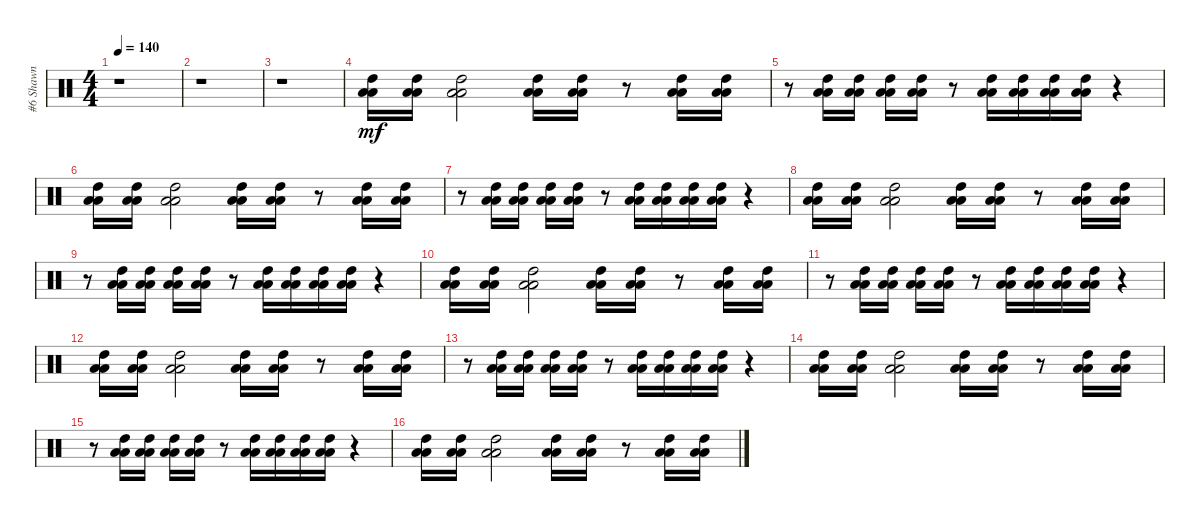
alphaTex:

\track ("#6 Shawn" "#6 Shawn") {solo instrument percussion}
\staff {score}
\articulation defaults
\ts (4 4)
\tempo 140
\clef neutral
\ks c
r.1{dy mf} |
r.1 |
r.1 |
("High Tom (hit)" "Low Tom (hit)" "Low Floor Tom (hit)").16 ("High Tom (hit)" "Low Tom (hit)" "Low Floor Tom (hit)").16 ("High Tom (hit)" "Low Tom (hit)" "Low Floor Tom (hit)").2 ("High Tom (hit)" "Low Tom (hit)" "Low Floor Tom (hit)").16 ("High Tom (hit)" "Low Tom (hit)" "Low Floor Tom (hit)").16 r.8 ("High Tom (hit)" "Low Tom (hit)" "Low Floor Tom (hit)").16 ("High Tom (hit)" "Low Tom (hit)" "Low Floor Tom (hit)").16 |
r.8 ("High Tom (hit)" "Low Tom (hit)" "Low Floor Tom (hit)").16 ("High Tom (hit)" "Low Tom (hit)" "Low Floor Tom (hit)").16 ("High Tom (hit)" "Low Tom (hit)" "Low Floor Tom (hit)").16 ("High Tom (hit)" "Low Tom (hit)" "Low Floor Tom (hit)").16 r.8 ("High Tom (hit)" "Low Tom (hit)" "Low Floor Tom (hit)").16 ("High Tom (hit)" "Low Tom (hit)" "Low Floor Tom (hit)").16 ("High Tom (hit)" "Low Tom (hit)" "Low Floor Tom (hit)").16 ("High Tom (hit)" "Low Tom (hit)" "Low Floor Tom (hit)").16 r.4 |
("High Tom (hit)" "Low Tom (hit)" "Low Floor Tom (hit)").16 ("High Tom (hit)" "Low Tom (hit)" "Low Floor Tom (hit)").16 ("High Tom (hit)" "Low Tom (hit)" "Low Floor Tom (hit)").2 ("High Tom (hit)" "Low Tom (hit)" "Low Floor Tom (hit)").16 ("High Tom (hit)" "Low Tom (hit)" "Low Floor Tom (hit)").16 r.8 ("High Tom (hit)" "Low Tom (hit)" "Low Floor Tom (hit)").16 ("High Tom (hit)" "Low Tom (hit)" "Low Floor Tom (hit)").16 |
r.8 ("High Tom (hit)" "Low Tom (hit)" "Low Floor Tom (hit)").16 ("High Tom (hit)" "Low Tom (hit)" "Low Floor Tom (hit)").16 ("High Tom (hit)" "Low Tom (hit)" "Low Floor Tom (hit)").16 ("High Tom (hit)" "Low Tom (hit)" "Low Floor Tom (hit)").16 r.8 ("High Tom (hit)" "Low Tom (hit)" "Low Floor Tom (hit)").16 ("High Tom (hit)" "Low Tom (hit)" "Low Floor Tom (hit)").16 ("High Tom (hit)" "Low Tom (hit)" "Low Floor Tom (hit)").16 ("High Tom (hit)" "Low Tom (hit)" "Low Floor Tom (hit)").16 r.4 |
("High Tom (hit)" "Low Tom (hit)" "Low Floor Tom (hit)").16 ("High Tom (hit)" "Low Tom (hit)" "Low Floor Tom (hit)").16 ("High Tom (hit)" "Low Tom (hit)" "Low Floor Tom (hit)").2 ("High Tom (hit)" "Low Tom (hit)" "Low Floor Tom (hit)").16 ("High Tom (hit)" "Low Tom (hit)" "Low Floor Tom (hit)").16 r.8 ("High Tom (hit)" "Low Tom (hit)" "Low Floor Tom (hit)").16 ("High Tom (hit)" "Low Tom (hit)" "Low Floor Tom (hit)").16 |
r.8 ("High Tom (hit)" "Low Tom (hit)" "Low Floor Tom (hit)").16 ("High Tom (hit)" "Low Tom (hit)" "Low Floor Tom (hit)").16 ("High Tom (hit)" "Low Tom (hit)" "Low Floor Tom (hit)").16 ("High Tom (hit)" "Low Tom (hit)" "Low Floor Tom (hit)").16 r.8 ("High Tom (hit)" "Low Tom (hit)" "Low Floor Tom (hit)").16 ("High Tom (hit)" "Low Tom (hit)" "Low Floor Tom (hit)").16 ("High Tom (hit)" "Low Tom (hit)" "Low Floor Tom (hit)").16 ("High Tom (hit)" "Low Tom (hit)" "Low Floor Tom (hit)").16 r.4 |
("High Tom (hit)" "Low Tom (hit)" "Low Floor Tom (hit)").16 ("High Tom (hit)" "Low Tom (hit)" "Low Floor Tom (hit)").16 ("High Tom (hit)" "Low Tom (hit)" "Low Floor Tom (hit)").2 ("High Tom (hit)" "Low Tom (hit)" "Low Floor Tom (hit)").16 ("High Tom (hit)" "Low Tom (hit)" "Low Floor Tom (hit)").16 r.8 ("High Tom (hit)" "Low Tom (hit)" "Low Floor Tom (hit)").16 ("High Tom (hit)" "Low Tom (hit)" "Low Floor Tom (hit)").16 |
r.8 ("High Tom (hit)" "Low Tom (hit)" "Low Floor Tom (hit)").16 ("High Tom (hit)" "Low Tom (hit)" "Low Floor Tom (hit)").16 ("High Tom (hit)" "Low Tom (hit)" "Low Floor Tom (hit)").16 ("High Tom (hit)" "Low Tom (hit)" "Low Floor Tom (hit)").16 r.8 ("High Tom (hit)" "Low Tom (hit)" "Low Floor Tom (hit)").16 ("High Tom (hit)" "Low Tom (hit)" "Low Floor Tom (hit)").16 ("High Tom (hit)" "Low Tom (hit)" "Low Floor Tom (hit)").16 ("High Tom (hit)" "Low Tom (hit)" "Low Floor Tom (hit)").16 r.4 |
("High Tom (hit)" "Low Tom (hit)" "Low Floor Tom (hit)").16 ("High Tom (hit)" "Low Tom (hit)" "Low Floor Tom (hit)").16 ("High Tom (hit)" "Low Tom (hit)" "Low Floor Tom (hit)").2 ("High Tom (hit)" "Low Tom (hit)" "Low Floor Tom (hit)").16 ("High Tom (hit)" "Low Tom (hit)" "Low Floor Tom (hit)").16 r.8 ("High Tom (hit)" "Low Tom (hit)" "Low Floor Tom (hit)").16 ("High Tom (hit)" "Low Tom (hit)" "Low Floor Tom (hit)").16 |
r.8 ("High Tom (hit)" "Low Tom (hit)" "Low Floor Tom (hit)").16 ("High Tom (hit)" "Low Tom (hit)" "Low Floor Tom (hit)").16 ("High Tom (hit)" "Low Tom (hit)" "Low Floor Tom (hit)").16 ("High Tom (hit)" "Low Tom (hit)" "Low Floor Tom (hit)").16 r.8 ("High Tom (hit)" "Low Tom (hit)" "Low Floor Tom (hit)").16 ("High Tom (hit)" "Low Tom (hit)" "Low Floor Tom (hit)").16 ("High Tom (hit)" "Low Tom (hit)" "Low Floor Tom (hit)").16 ("High Tom (hit)" "Low Tom (hit)" "Low Floor Tom (hit)").16 r.4 |
("High Tom (hit)" "Low Tom (hit)" "Low Floor Tom (hit)").16 ("High Tom (hit)" "Low Tom (hit)" "Low Floor Tom (hit)").16 ("High Tom (hit)" "Low Tom (hit)" "Low Floor Tom (hit)").2 ("High Tom (hit)" "Low Tom (hit)" "Low Floor Tom (hit)").16 ("High Tom (hit)" "Low Tom (hit)" "Low Floor Tom (hit)").16 r.8 ("High Tom (hit)" "Low Tom (hit)" "Low Floor Tom (hit)").16 ("High Tom (hit)" "Low Tom (hit)" "Low Floor Tom (hit)").16 |
r.8 ("High Tom (hit)" "Low Tom (hit)" "Low Floor Tom (hit)").16 ("High Tom (hit)" "Low Tom (hit)" "Low Floor Tom (hit)").16 ("High Tom (hit)" "Low Tom (hit)" "Low Floor Tom (hit)").16 ("High Tom (hit)" "Low Tom (hit)" "Low Floor Tom (hit)").16 r.8 ("High Tom (hit)" "Low Tom (hit)" "Low Floor Tom (hit)").16 ("High Tom (hit)" "Low Tom (hit)" "Low Floor Tom (hit)").16 ("High Tom (hit)" "Low Tom (hit)" "Low Floor Tom (hit)").16 ("High Tom (hit)" "Low Tom (hit)" "Low Floor Tom (hit)").16 r.4 |
("High Tom (hit)" "Low Tom (hit)" "Low Floor Tom (hit)").16 ("High Tom (hit)" "Low Tom (hit)" "Low Floor Tom (hit)").16 ("High Tom (hit)" "Low Tom (hit)" "Low Floor Tom (hit)").2 ("High Tom (hit)" "Low Tom (hit)" "Low Floor Tom (hit)").16 ("High Tom (hit)" "Low Tom (hit)" "Low Floor Tom (hit)").16 r.8 ("High Tom (hit)" "Low Tom (hit)" "Low Floor Tom (hit)").16 ("High Tom (hit)" "Low Tom (hit)" "Low Floor Tom (hit)").16
